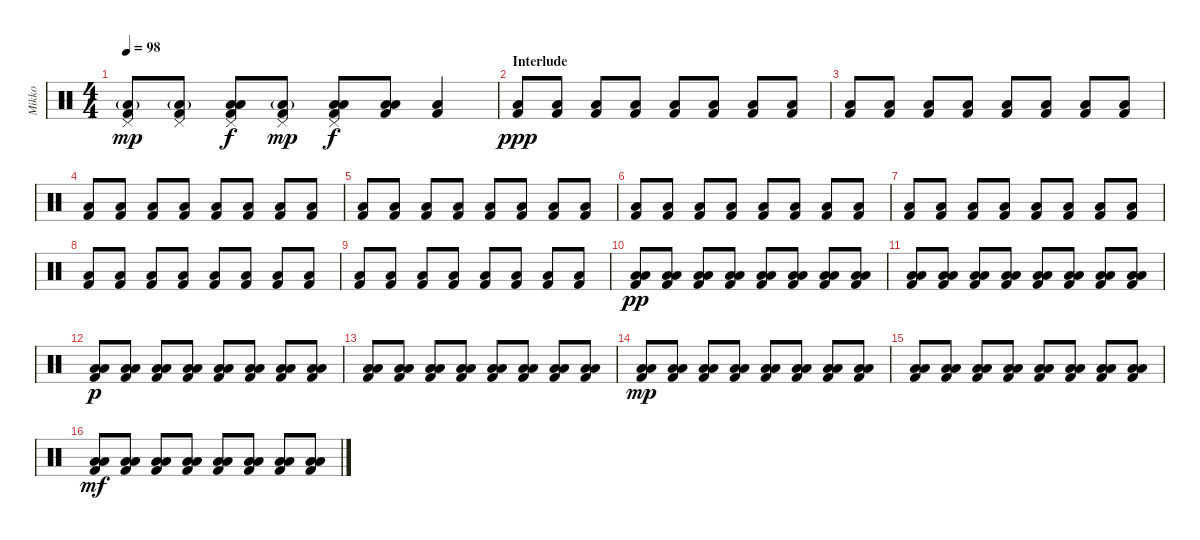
\track ("Mikko" "Mikko") {instrument percussion}
\staff {score}
\articulation defaults
\ts (4 4)
\tempo 98
\clef neutral
\ks c
("Low Floor Tom (hit)"{g} "Pedal Hi-Hat (hit)" "Kick (hit) 2").8{dy mp} ("Low Floor Tom (hit)"{g} "Pedal Hi-Hat (hit)" "Kick (hit) 2").8 ("Pedal Hi-Hat (hit)" "Low Tom (hit)" "Low Floor Tom (hit)" "Kick (hit) 2").8{dy f} ("Low Floor Tom (hit)"{g} "Pedal Hi-Hat (hit)" "Kick (hit) 2").8{dy mp} ("Pedal Hi-Hat (hit)" "Low Tom (hit)" "Low Floor Tom (hit)" "Kick (hit) 2").8{dy f} ("Low Tom (hit)" "Low Floor Tom (hit)" "Kick (hit) 2").8 ("Low Floor Tom (hit)" "Kick (hit) 2").4 |
\section ("" "Interlude")
("Low Floor Tom (hit)" "Kick (hit) 2").8{dy ppp} ("Low Floor Tom (hit)" "Kick (hit) 2").8 ("Low Floor Tom (hit)" "Kick (hit) 2").8 ("Low Floor Tom (hit)" "Kick (hit) 2").8 ("Low Floor Tom (hit)" "Kick (hit) 2").8 ("Low Floor Tom (hit)" "Kick (hit) 2").8 ("Low Floor Tom (hit)" "Kick (hit) 2").8 ("Low Floor Tom (hit)" "Kick (hit) 2").8 |
("Low Floor Tom (hit)" "Kick (hit) 2").8 ("Low Floor Tom (hit)" "Kick (hit) 2").8 ("Low Floor Tom (hit)" "Kick (hit) 2").8 ("Low Floor Tom (hit)" "Kick (hit) 2").8 ("Low Floor Tom (hit)" "Kick (hit) 2").8 ("Low Floor Tom (hit)" "Kick (hit) 2").8 ("Low Floor Tom (hit)" "Kick (hit) 2").8 ("Low Floor Tom (hit)" "Kick (hit) 2").8 |
("Low Floor Tom (hit)" "Kick (hit) 2").8 ("Low Floor Tom (hit)" "Kick (hit) 2").8 ("Low Floor Tom (hit)" "Kick (hit) 2").8 ("Low Floor Tom (hit)" "Kick (hit) 2").8 ("Low Floor Tom (hit)" "Kick (hit) 2").8 ("Low Floor Tom (hit)" "Kick (hit) 2").8 ("Low Floor Tom (hit)" "Kick (hit) 2").8 ("Low Floor Tom (hit)" "Kick (hit) 2").8 |
("Low Floor Tom (hit)" "Kick (hit) 2").8 ("Low Floor Tom (hit)" "Kick (hit) 2").8 ("Low Floor Tom (hit)" "Kick (hit) 2").8 ("Low Floor Tom (hit)" "Kick (hit) 2").8 ("Low Floor Tom (hit)" "Kick (hit) 2").8 ("Low Floor Tom (hit)" "Kick (hit) 2").8 ("Low Floor Tom (hit)" "Kick (hit) 2").8 ("Low Floor Tom (hit)" "Kick (hit) 2").8 |
("Low Floor Tom (hit)" "Kick (hit) 2").8 ("Low Floor Tom (hit)" "Kick (hit) 2").8 ("Low Floor Tom (hit)" "Kick (hit) 2").8 ("Low Floor Tom (hit)" "Kick (hit) 2").8 ("Low Floor Tom (hit)" "Kick (hit) 2").8 ("Low Floor Tom (hit)" "Kick (hit) 2").8 ("Low Floor Tom (hit)" "Kick (hit) 2").8 ("Low Floor Tom (hit)" "Kick (hit) 2").8 |
("Low Floor Tom (hit)" "Kick (hit) 2").8 ("Low Floor Tom (hit)" "Kick (hit) 2").8 ("Low Floor Tom (hit)" "Kick (hit) 2").8 ("Low Floor Tom (hit)" "Kick (hit) 2").8 ("Low Floor Tom (hit)" "Kick (hit) 2").8 ("Low Floor Tom (hit)" "Kick (hit) 2").8 ("Low Floor Tom (hit)" "Kick (hit) 2").8 ("Low Floor Tom (hit)" "Kick (hit) 2").8 |
("Low Floor Tom (hit)" "Kick (hit) 2").8 ("Low Floor Tom (hit)" "Kick (hit) 2").8 ("Low Floor Tom (hit)" "Kick (hit) 2").8 ("Low Floor Tom (hit)" "Kick (hit) 2").8 ("Low Floor Tom (hit)" "Kick (hit) 2").8 ("Low Floor Tom (hit)" "Kick (hit) 2").8 ("Low Floor Tom (hit)" "Kick (hit) 2").8 ("Low Floor Tom (hit)" "Kick (hit) 2").8 |
("Low Floor Tom (hit)" "Kick (hit) 2").8 ("Low Floor Tom (hit)" "Kick (hit) 2").8 ("Low Floor Tom (hit)" "Kick (hit) 2").8 ("Low Floor Tom (hit)" "Kick (hit) 2").8 ("Low Floor Tom (hit)" "Kick (hit) 2").8 ("Low Floor Tom (hit)" "Kick (hit) 2").8 ("Low Floor Tom (hit)" "Kick (hit) 2").8 ("Low Floor Tom (hit)" "Kick (hit) 2").8 |
("Low Tom (hit)" "Low Floor Tom (hit)" "Kick (hit) 2").8{dy pp} ("Low Tom (hit)" "Low Floor Tom (hit)" "Kick (hit) 2").8 ("Low Tom (hit)" "Low Floor Tom (hit)" "Kick (hit) 2").8 ("Low Tom (hit)" "Low Floor Tom (hit)" "Kick (hit) 2").8 ("Low Tom (hit)" "Low Floor Tom (hit)" "Kick (hit) 2").8 ("Low Tom (hit)" "Low Floor Tom (hit)" "Kick (hit) 2").8 ("Low Tom (hit)" "Low Floor Tom (hit)" "Kick (hit) 2").8 ("Low Tom (hit)" "Low Floor Tom (hit)" "Kick (hit) 2").8 |
("Low Tom (hit)" "Low Floor Tom (hit)" "Kick (hit) 2").8 ("Low Tom (hit)" "Low Floor Tom (hit)" "Kick (hit) 2").8 ("Low Tom (hit)" "Low Floor Tom (hit)" "Kick (hit) 2").8 ("Low Tom (hit)" "Low Floor Tom (hit)" "Kick (hit) 2").8 ("Low Tom (hit)" "Low Floor Tom (hit)" "Kick (hit) 2").8 ("Low Tom (hit)" "Low Floor Tom (hit)" "Kick (hit) 2").8 ("Low Tom (hit)" "Low Floor Tom (hit)" "Kick (hit) 2").8 ("Low Tom (hit)" "Low Floor Tom (hit)" "Kick (hit) 2").8 |
("Low Tom (hit)" "Low Floor Tom (hit)" "Kick (hit) 2").8{dy p} ("Low Tom (hit)" "Low Floor Tom (hit)" "Kick (hit) 2").8 ("Low Tom (hit)" "Low Floor Tom (hit)" "Kick (hit) 2").8 ("Low Tom (hit)" "Low Floor Tom (hit)" "Kick (hit) 2").8 ("Low Tom (hit)" "Low Floor Tom (hit)" "Kick (hit) 2").8 ("Low Tom (hit)" "Low Floor Tom (hit)" "Kick (hit) 2").8 ("Low Tom (hit)" "Low Floor Tom (hit)" "Kick (hit) 2").8 ("Low Tom (hit)" "Low Floor Tom (hit)" "Kick (hit) 2").8 |
("Low Tom (hit)" "Low Floor Tom (hit)" "Kick (hit) 2").8 ("Low Tom (hit)" "Low Floor Tom (hit)" "Kick (hit) 2").8 ("Low Tom (hit)" "Low Floor Tom (hit)" "Kick (hit) 2").8 ("Low Tom (hit)" "Low Floor Tom (hit)" "Kick (hit) 2").8 ("Low Tom (hit)" "Low Floor Tom (hit)" "Kick (hit) 2").8 ("Low Tom (hit)" "Low Floor Tom (hit)" "Kick (hit) 2").8 ("Low Tom (hit)" "Low Floor Tom (hit)" "Kick (hit) 2").8 ("Low Tom (hit)" "Low Floor Tom (hit)" "Kick (hit) 2").8 |
("Low Tom (hit)" "Low Floor Tom (hit)" "Kick (hit) 2").8{dy mp} ("Low Tom (hit)" "Low Floor Tom (hit)" "Kick (hit) 2").8 ("Low Tom (hit)" "Low Floor Tom (hit)" "Kick (hit) 2").8 ("Low Tom (hit)" "Low Floor Tom (hit)" "Kick (hit) 2").8 ("Low Tom (hit)" "Low Floor Tom (hit)" "Kick (hit) 2").8 ("Low Tom (hit)" "Low Floor Tom (hit)" "Kick (hit) 2").8 ("Low Tom (hit)" "Low Floor Tom (hit)" "Kick (hit) 2").8 ("Low Tom (hit)" "Low Floor Tom (hit)" "Kick (hit) 2").8 |
("Low Tom (hit)" "Low Floor Tom (hit)" "Kick (hit) 2").8 ("Low Tom (hit)" "Low Floor Tom (hit)" "Kick (hit) 2").8 ("Low Tom (hit)" "Low Floor Tom (hit)" "Kick (hit) 2").8 ("Low Tom (hit)" "Low Floor Tom (hit)" "Kick (hit) 2").8 ("Low Tom (hit)" "Low Floor Tom (hit)" "Kick (hit) 2").8 ("Low Tom (hit)" "Low Floor Tom (hit)" "Kick (hit) 2").8 ("Low Tom (hit)" "Low Floor Tom (hit)" "Kick (hit) 2").8 ("Low Tom (hit)" "Low Floor Tom (hit)" "Kick (hit) 2").8 |
("Low Tom (hit)" "Low Floor Tom (hit)" "Kick (hit) 2").8{dy mf} ("Low Tom (hit)" "Low Floor Tom (hit)" "Kick (hit) 2").8 ("Low Tom (hit)" "Low Floor Tom (hit)" "Kick (hit) 2").8 ("Low Tom (hit)" "Low Floor Tom (hit)" "Kick (hit) 2").8 ("Low Tom (hit)" "Low Floor Tom (hit)" "Kick (hit) 2").8 ("Low Tom (hit)" "Low Floor Tom (hit)" "Kick (hit) 2").8 ("Low Tom (hit)" "Low Floor Tom (hit)" "Kick (hit) 2").8 ("Low Tom (hit)" "Low Floor Tom (hit)" "Kick (hit) 2").8
